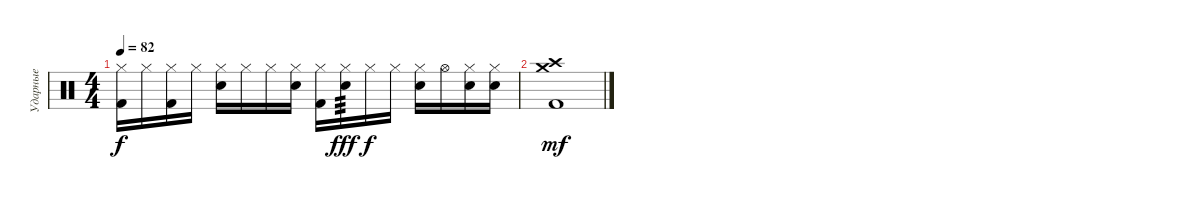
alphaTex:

\track ("Ударные" "Ударные") {instrument percussion}
\staff {score}
\articulation defaults
\ts (4 4)
\tempo 82
\clef neutral
\ks c
("Hi-Hat (closed)" "Kick (hit) 2").16{dy f} "Hi-Hat (closed)".16 ("Hi-Hat (closed)" "Kick (hit) 2").16 "Hi-Hat (closed)".16 ("Hi-Hat (closed)" "Electric Snare (hit)").16 "Hi-Hat (closed)".16 "Hi-Hat (closed)".16 ("Hi-Hat (closed)" "Electric Snare (hit)").16 ("Hi-Hat (closed)" "Kick (hit) 2").16 ("Hi-Hat (closed)" "Electric Snare (hit)").16{tp 3 dy fff} "Hi-Hat (closed)".16{dy f} "Hi-Hat (closed)".16 ("Hi-Hat (closed)" "Electric Snare (hit)").16 "Hi-Hat (open)".16 ("Hi-Hat (closed)" "Electric Snare (hit)").16 ("Hi-Hat (closed)" "Electric Snare (hit)").16 |
("Crash medium (hit)" "Kick (hit) 2" "Crash high (hit)").1{dy mf}
